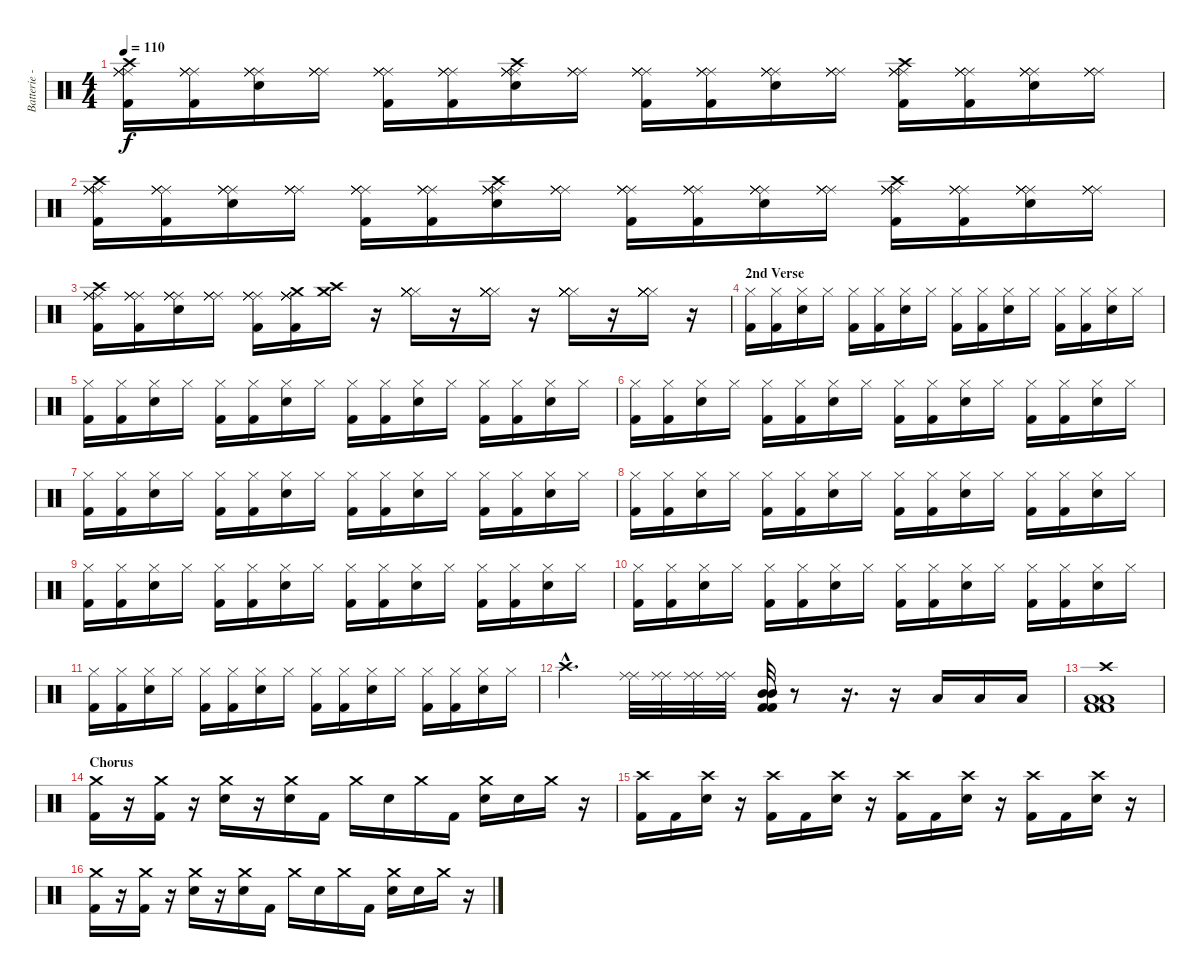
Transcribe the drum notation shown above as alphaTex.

\track ("Batterie - Travis Barker" "Batterie -") {instrument percussion}
\staff {score}
\articulation defaults
\ts (4 4)
\tempo 110
\clef neutral
\ks c
("Ride (middle)" "Crash high (hit)" "Kick (hit) 2" "Ride (middle)" "Ride (middle)" "Ride (middle)").16{dy f} ("Ride (middle)" "Kick (hit) 2" "Ride (middle)" "Ride (middle)" "Ride (middle)").16 ("Ride (middle)" "Snare (hit) 2" "Ride (middle)" "Ride (middle)" "Ride (middle)").16 ("Ride (middle)" "Ride (middle)" "Ride (middle)" "Ride (middle)").16 ("Ride (middle)" "Kick (hit) 2" "Ride (middle)" "Ride (middle)" "Ride (middle)").16 ("Ride (middle)" "Kick (hit) 2" "Ride (middle)" "Ride (middle)" "Ride (middle)").16 ("Ride (middle)" "Crash high (hit)" "Snare (hit) 2" "Ride (middle)" "Ride (middle)" "Ride (middle)").16 ("Ride (middle)" "Ride (middle)" "Ride (middle)" "Ride (middle)").16 ("Ride (middle)" "Kick (hit) 2" "Ride (middle)" "Ride (middle)" "Ride (middle)").16 ("Ride (middle)" "Kick (hit) 2" "Ride (middle)" "Ride (middle)" "Ride (middle)").16 ("Ride (middle)" "Snare (hit) 2" "Ride (middle)" "Ride (middle)" "Ride (middle)").16 ("Ride (middle)" "Ride (middle)" "Ride (middle)" "Ride (middle)").16 ("Ride (middle)" "Crash high (hit)" "Kick (hit) 2" "Ride (middle)" "Ride (middle)" "Ride (middle)").16 ("Ride (middle)" "Kick (hit) 2" "Ride (middle)" "Ride (middle)" "Ride (middle)").16 ("Ride (middle)" "Snare (hit) 2" "Ride (middle)" "Ride (middle)" "Ride (middle)").16 ("Ride (middle)" "Ride (middle)" "Ride (middle)" "Ride (middle)").16 |
("Ride (middle)" "Crash high (hit)" "Kick (hit) 2" "Ride (middle)" "Ride (middle)" "Ride (middle)").16 ("Ride (middle)" "Kick (hit) 2" "Ride (middle)" "Ride (middle)" "Ride (middle)").16 ("Ride (middle)" "Snare (hit) 2" "Ride (middle)" "Ride (middle)" "Ride (middle)").16 ("Ride (middle)" "Ride (middle)" "Ride (middle)" "Ride (middle)").16 ("Ride (middle)" "Kick (hit) 2" "Ride (middle)" "Ride (middle)" "Ride (middle)").16 ("Ride (middle)" "Kick (hit) 2" "Ride (middle)" "Ride (middle)" "Ride (middle)").16 ("Ride (middle)" "Crash high (hit)" "Snare (hit) 2" "Ride (middle)" "Ride (middle)" "Ride (middle)").16 ("Ride (middle)" "Ride (middle)" "Ride (middle)" "Ride (middle)").16 ("Ride (middle)" "Kick (hit) 2" "Ride (middle)" "Ride (middle)" "Ride (middle)").16 ("Ride (middle)" "Kick (hit) 2" "Ride (middle)" "Ride (middle)" "Ride (middle)").16 ("Ride (middle)" "Snare (hit) 2" "Ride (middle)" "Ride (middle)" "Ride (middle)").16 ("Ride (middle)" "Ride (middle)" "Ride (middle)" "Ride (middle)").16 ("Ride (middle)" "Crash high (hit)" "Kick (hit) 2" "Ride (middle)" "Ride (middle)" "Ride (middle)").16 ("Ride (middle)" "Kick (hit) 2" "Ride (middle)" "Ride (middle)" "Ride (middle)").16 ("Ride (middle)" "Snare (hit) 2" "Ride (middle)" "Ride (middle)" "Ride (middle)").16 ("Ride (middle)" "Ride (middle)" "Ride (middle)" "Ride (middle)").16 |
("Ride (middle)" "Crash high (hit)" "Kick (hit) 2" "Ride (middle)" "Ride (middle)" "Ride (middle)").16 ("Ride (middle)" "Kick (hit) 2" "Ride (middle)" "Ride (middle)" "Ride (middle)").16 ("Ride (middle)" "Snare (hit) 2" "Ride (middle)" "Ride (middle)" "Ride (middle)").16 ("Ride (middle)" "Ride (middle)" "Ride (middle)" "Ride (middle)").16 ("Ride (middle)" "Kick (hit) 2" "Ride (middle)" "Ride (middle)" "Ride (middle)").16 ("Ride (middle)" "Crash medium (hit)" "Kick (hit) 2" "Ride (middle)" "Ride (middle)" "Ride (middle)").16 ("Crash medium (hit)" "Crash high (hit)").16 r.16 ("Hi-Hat (closed)" "Hi-Hat (closed)" "Hi-Hat (closed)" "Hi-Hat (closed)" "Hi-Hat (closed)" "Hi-Hat (closed)").16 r.16 ("Hi-Hat (closed)" "Hi-Hat (closed)" "Hi-Hat (closed)" "Hi-Hat (closed)" "Hi-Hat (closed)" "Hi-Hat (closed)").16 r.16 ("Hi-Hat (closed)" "Hi-Hat (closed)" "Hi-Hat (closed)" "Hi-Hat (closed)" "Hi-Hat (closed)" "Hi-Hat (closed)").16 r.16 ("Hi-Hat (closed)" "Hi-Hat (closed)" "Hi-Hat (closed)" "Hi-Hat (closed)" "Hi-Hat (closed)" "Hi-Hat (closed)").16 r.16 |
\section ("" "2nd Verse")
("Hi-Hat (closed)" "Kick (hit) 2").16 ("Hi-Hat (closed)" "Kick (hit) 2").16 ("Hi-Hat (closed)" "Snare (hit) 2").16 "Hi-Hat (closed)".16 ("Hi-Hat (closed)" "Kick (hit) 2").16 ("Hi-Hat (closed)" "Kick (hit) 2").16 ("Hi-Hat (closed)" "Snare (hit) 2").16 "Hi-Hat (closed)".16 ("Hi-Hat (closed)" "Kick (hit) 2").16 ("Hi-Hat (closed)" "Kick (hit) 2").16 ("Hi-Hat (closed)" "Snare (hit) 2").16 "Hi-Hat (closed)".16 ("Hi-Hat (closed)" "Kick (hit) 2").16 ("Hi-Hat (closed)" "Kick (hit) 2").16 ("Hi-Hat (closed)" "Snare (hit) 2").16 "Hi-Hat (closed)".16 |
("Hi-Hat (closed)" "Kick (hit) 2").16 ("Hi-Hat (closed)" "Kick (hit) 2").16 ("Hi-Hat (closed)" "Snare (hit) 2").16 "Hi-Hat (closed)".16 ("Hi-Hat (closed)" "Kick (hit) 2").16 ("Hi-Hat (closed)" "Kick (hit) 2").16 ("Hi-Hat (closed)" "Snare (hit) 2").16 "Hi-Hat (closed)".16 ("Hi-Hat (closed)" "Kick (hit) 2").16 ("Hi-Hat (closed)" "Kick (hit) 2").16 ("Hi-Hat (closed)" "Snare (hit) 2").16 "Hi-Hat (closed)".16 ("Hi-Hat (closed)" "Kick (hit) 2").16 ("Hi-Hat (closed)" "Kick (hit) 2").16 ("Hi-Hat (closed)" "Snare (hit) 2").16 "Hi-Hat (closed)".16 |
("Hi-Hat (closed)" "Kick (hit) 2").16 ("Hi-Hat (closed)" "Kick (hit) 2").16 ("Hi-Hat (closed)" "Snare (hit) 2").16 "Hi-Hat (closed)".16 ("Hi-Hat (closed)" "Kick (hit) 2").16 ("Hi-Hat (closed)" "Kick (hit) 2").16 ("Hi-Hat (closed)" "Snare (hit) 2").16 "Hi-Hat (closed)".16 ("Hi-Hat (closed)" "Kick (hit) 2").16 ("Hi-Hat (closed)" "Kick (hit) 2").16 ("Hi-Hat (closed)" "Snare (hit) 2").16 "Hi-Hat (closed)".16 ("Hi-Hat (closed)" "Kick (hit) 2").16 ("Hi-Hat (closed)" "Kick (hit) 2").16 ("Hi-Hat (closed)" "Snare (hit) 2").16 "Hi-Hat (closed)".16 |
("Hi-Hat (closed)" "Kick (hit) 2").16 ("Hi-Hat (closed)" "Kick (hit) 2").16 ("Hi-Hat (closed)" "Snare (hit) 2").16 "Hi-Hat (closed)".16 ("Hi-Hat (closed)" "Kick (hit) 2").16 ("Hi-Hat (closed)" "Kick (hit) 2").16 ("Hi-Hat (closed)" "Snare (hit) 2").16 "Hi-Hat (closed)".16 ("Hi-Hat (closed)" "Kick (hit) 2").16 ("Hi-Hat (closed)" "Kick (hit) 2").16 ("Hi-Hat (closed)" "Snare (hit) 2").16 "Hi-Hat (closed)".16 ("Hi-Hat (closed)" "Kick (hit) 2").16 ("Hi-Hat (closed)" "Kick (hit) 2").16 ("Hi-Hat (closed)" "Snare (hit) 2").16 "Hi-Hat (closed)".16 |
("Hi-Hat (closed)" "Kick (hit) 2").16 ("Hi-Hat (closed)" "Kick (hit) 2").16 ("Hi-Hat (closed)" "Snare (hit) 2").16 "Hi-Hat (closed)".16 ("Hi-Hat (closed)" "Kick (hit) 2").16 ("Hi-Hat (closed)" "Kick (hit) 2").16 ("Hi-Hat (closed)" "Snare (hit) 2").16 "Hi-Hat (closed)".16 ("Hi-Hat (closed)" "Kick (hit) 2").16 ("Hi-Hat (closed)" "Kick (hit) 2").16 ("Hi-Hat (closed)" "Snare (hit) 2").16 "Hi-Hat (closed)".16 ("Hi-Hat (closed)" "Kick (hit) 2").16 ("Hi-Hat (closed)" "Kick (hit) 2").16 ("Hi-Hat (closed)" "Snare (hit) 2").16 "Hi-Hat (closed)".16 |
("Hi-Hat (closed)" "Kick (hit) 2").16 ("Hi-Hat (closed)" "Kick (hit) 2").16 ("Hi-Hat (closed)" "Snare (hit) 2").16 "Hi-Hat (closed)".16 ("Hi-Hat (closed)" "Kick (hit) 2").16 ("Hi-Hat (closed)" "Kick (hit) 2").16 ("Hi-Hat (closed)" "Snare (hit) 2").16 "Hi-Hat (closed)".16 ("Hi-Hat (closed)" "Kick (hit) 2").16 ("Hi-Hat (closed)" "Kick (hit) 2").16 ("Hi-Hat (closed)" "Snare (hit) 2").16 "Hi-Hat (closed)".16 ("Hi-Hat (closed)" "Kick (hit) 2").16 ("Hi-Hat (closed)" "Kick (hit) 2").16 ("Hi-Hat (closed)" "Snare (hit) 2").16 "Hi-Hat (closed)".16 |
("Hi-Hat (closed)" "Kick (hit) 2").16 ("Hi-Hat (closed)" "Kick (hit) 2").16 ("Hi-Hat (closed)" "Snare (hit) 2").16 "Hi-Hat (closed)".16 ("Hi-Hat (closed)" "Kick (hit) 2").16 ("Hi-Hat (closed)" "Kick (hit) 2").16 ("Hi-Hat (closed)" "Snare (hit) 2").16 "Hi-Hat (closed)".16 ("Hi-Hat (closed)" "Kick (hit) 2").16 ("Hi-Hat (closed)" "Kick (hit) 2").16 ("Hi-Hat (closed)" "Snare (hit) 2").16 "Hi-Hat (closed)".16 ("Hi-Hat (closed)" "Kick (hit) 2").16 ("Hi-Hat (closed)" "Kick (hit) 2").16 ("Hi-Hat (closed)" "Snare (hit) 2").16 "Hi-Hat (closed)".16 |
("Hi-Hat (closed)" "Kick (hit) 2").16 ("Hi-Hat (closed)" "Kick (hit) 2").16 ("Hi-Hat (closed)" "Snare (hit) 2").16 "Hi-Hat (closed)".16 ("Hi-Hat (closed)" "Kick (hit) 2").16 ("Hi-Hat (closed)" "Kick (hit) 2").16 ("Hi-Hat (closed)" "Snare (hit) 2").16 "Hi-Hat (closed)".16 ("Hi-Hat (closed)" "Kick (hit) 2").16 ("Hi-Hat (closed)" "Kick (hit) 2").16 ("Hi-Hat (closed)" "Snare (hit) 2").16 "Hi-Hat (closed)".16 ("Hi-Hat (closed)" "Kick (hit) 2").16 ("Hi-Hat (closed)" "Kick (hit) 2").16 ("Hi-Hat (closed)" "Snare (hit) 2").16 "Hi-Hat (closed)".16 |
"Crash high (hit)"{hac}.4{d} ("Ride (middle)" "Ride (middle)").32 ("Ride (middle)" "Ride (middle)").32 ("Ride (middle)" "Ride (middle)").32 ("Ride (middle)" "Ride (middle)").32 ("Mid Tom (hit)" "Mid Tom (hit)" "Kick (hit) 2" "Kick (hit) 2").32 r.8 r.16{d} r.16 "Low Floor Tom (hit)".16 "Low Floor Tom (hit)".16 "Low Floor Tom (hit)".16 |
("Kick (hit) 2" "Kick (hit) 2" "Low Floor Tom (hit)" "Low Floor Tom (hit)" "Crash high (hit)").1 |
\section ("" "Chorus")
("Crash medium (hit)" "Kick (hit) 2").16 r.16 ("Crash medium (hit)" "Kick (hit) 2").16 r.16 ("Crash medium (hit)" "Snare (hit) 2").16 r.16 ("Crash medium (hit)" "Snare (hit) 2").16 "Kick (hit) 2".16 "Crash medium (hit)".16 "Snare (hit) 2".16 "Crash medium (hit)".16 "Kick (hit) 2".16 ("Crash medium (hit)" "Snare (hit) 2").16 "Snare (hit) 2".16 "Crash medium (hit)".16 r.16 |
("Crash high (hit)" "Kick (hit) 2").16 "Kick (hit) 2".16 ("Crash high (hit)" "Snare (hit) 2").16 r.16 ("Crash high (hit)" "Kick (hit) 2").16 "Kick (hit) 2".16 ("Crash high (hit)" "Snare (hit) 2").16 r.16 ("Crash high (hit)" "Kick (hit) 2").16 "Kick (hit) 2".16 ("Crash high (hit)" "Snare (hit) 2").16 r.16 ("Crash high (hit)" "Kick (hit) 2").16 "Kick (hit) 2".16 ("Crash high (hit)" "Snare (hit) 2").16 r.16 |
("Crash medium (hit)" "Kick (hit) 2").16 r.16 ("Crash medium (hit)" "Kick (hit) 2").16 r.16 ("Crash medium (hit)" "Snare (hit) 2").16 r.16 ("Crash medium (hit)" "Snare (hit) 2").16 "Kick (hit) 2".16 "Crash medium (hit)".16 "Snare (hit) 2".16 "Crash medium (hit)".16 "Kick (hit) 2".16 ("Crash medium (hit)" "Snare (hit) 2").16 "Snare (hit) 2".16 "Crash medium (hit)".16 r.16
